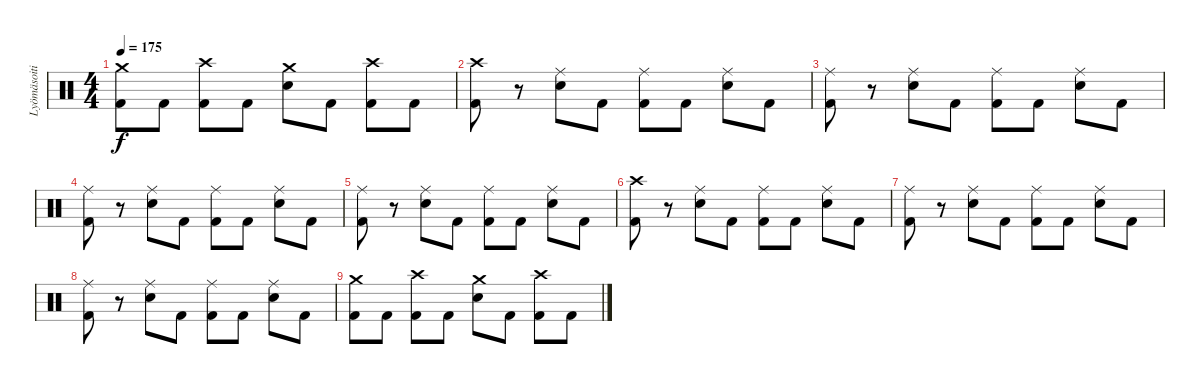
\track ("Lyömäsoitin" "Lyömäsoiti") {instrument percussion}
\staff {score}
\articulation defaults
\ts (4 4)
\tempo 175
\clef neutral
\ks c
("Crash medium (hit)" "Kick (hit) 2").8{dy f} "Kick (hit) 2".8 ("Crash high (hit)" "Kick (hit) 2").8 "Kick (hit) 2".8 ("Crash medium (hit)" "Electric Snare (hit)").8 "Kick (hit) 2".8 ("Crash high (hit)" "Kick (hit) 2").8 "Kick (hit) 2".8 |
("Crash high (hit)" "Kick (hit) 2").8 r.8 ("Ride (middle)" "Electric Snare (hit)").8 "Kick (hit) 2".8 ("Ride (middle)" "Kick (hit) 2").8 "Kick (hit) 2".8 ("Ride (middle)" "Electric Snare (hit)").8 "Kick (hit) 2".8 |
("Ride (middle)" "Kick (hit) 2").8 r.8 ("Ride (middle)" "Electric Snare (hit)").8 "Kick (hit) 2".8 ("Ride (middle)" "Kick (hit) 2").8 "Kick (hit) 2".8 ("Ride (middle)" "Electric Snare (hit)").8 "Kick (hit) 2".8 |
("Ride (middle)" "Kick (hit) 2").8 r.8 ("Ride (middle)" "Electric Snare (hit)").8 "Kick (hit) 2".8 ("Ride (middle)" "Kick (hit) 2").8 "Kick (hit) 2".8 ("Ride (middle)" "Electric Snare (hit)").8 "Kick (hit) 2".8 |
("Ride (middle)" "Kick (hit) 2").8 r.8 ("Ride (middle)" "Electric Snare (hit)").8 "Kick (hit) 2".8 ("Ride (middle)" "Kick (hit) 2").8 "Kick (hit) 2".8 ("Ride (middle)" "Electric Snare (hit)").8 "Kick (hit) 2".8 |
("Crash high (hit)" "Kick (hit) 2").8 r.8 ("Ride (middle)" "Electric Snare (hit)").8 "Kick (hit) 2".8 ("Ride (middle)" "Kick (hit) 2").8 "Kick (hit) 2".8 ("Ride (middle)" "Electric Snare (hit)").8 "Kick (hit) 2".8 |
("Ride (middle)" "Kick (hit) 2").8 r.8 ("Ride (middle)" "Electric Snare (hit)").8 "Kick (hit) 2".8 ("Ride (middle)" "Kick (hit) 2").8 "Kick (hit) 2".8 ("Ride (middle)" "Electric Snare (hit)").8 "Kick (hit) 2".8 |
("Ride (middle)" "Kick (hit) 2").8 r.8 ("Ride (middle)" "Electric Snare (hit)").8 "Kick (hit) 2".8 ("Ride (middle)" "Kick (hit) 2").8 "Kick (hit) 2".8 ("Ride (middle)" "Electric Snare (hit)").8 "Kick (hit) 2".8 |
("Crash medium (hit)" "Kick (hit) 2").8 "Kick (hit) 2".8 ("Crash high (hit)" "Kick (hit) 2").8 "Kick (hit) 2".8 ("Crash medium (hit)" "Electric Snare (hit)").8 "Kick (hit) 2".8 ("Crash high (hit)" "Kick (hit) 2").8 "Kick (hit) 2".8
